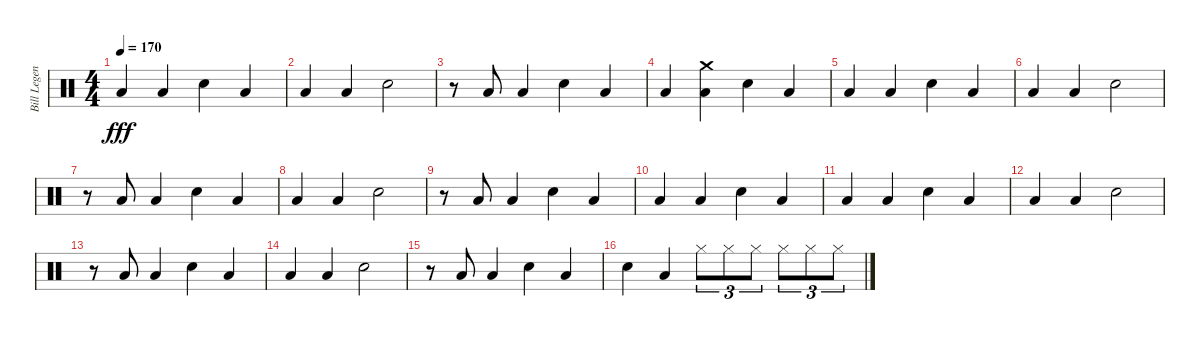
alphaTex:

\track ("Bill Legend" "Bill Legen") {instrument percussion}
\staff {score}
\articulation defaults
\ts (4 4)
\tempo 170
\clef neutral
\ks c "Low Floor Tom (hit)".4{dy fff} "Low Floor Tom (hit)".4 "Electric Snare (hit)".4 "Low Floor Tom (hit)".4
|
"Low Floor Tom (hit)".4 "Low Floor Tom (hit)".4 "Electric Snare (hit)".2 |
r.8 "Low Floor Tom (hit)".8 "Low Floor Tom (hit)".4 "Electric Snare (hit)".4 "Low Floor Tom (hit)".4 |
"Low Floor Tom (hit)".4 ("Low Floor Tom (hit)" "Crash medium (hit)").4 "Electric Snare (hit)".4 "Low Floor Tom (hit)".4 |
"Low Floor Tom (hit)".4 "Low Floor Tom (hit)".4 "Electric Snare (hit)".4 "Low Floor Tom (hit)".4 |
"Low Floor Tom (hit)".4 "Low Floor Tom (hit)".4 "Electric Snare (hit)".2 |
r.8 "Low Floor Tom (hit)".8 "Low Floor Tom (hit)".4 "Electric Snare (hit)".4 "Low Floor Tom (hit)".4 |
"Low Floor Tom (hit)".4 "Low Floor Tom (hit)".4 "Electric Snare (hit)".2 |
r.8 "Low Floor Tom (hit)".8 "Low Floor Tom (hit)".4 "Electric Snare (hit)".4 "Low Floor Tom (hit)".4 |
"Low Floor Tom (hit)".4 "Low Floor Tom (hit)".4 "Electric Snare (hit)".4 "Low Floor Tom (hit)".4 |
"Low Floor Tom (hit)".4 "Low Floor Tom (hit)".4 "Electric Snare (hit)".4 "Low Floor Tom (hit)".4 |
"Low Floor Tom (hit)".4 "Low Floor Tom (hit)".4 "Electric Snare (hit)".2 |
r.8 "Low Floor Tom (hit)".8 "Low Floor Tom (hit)".4 "Electric Snare (hit)".4 "Low Floor Tom (hit)".4 |
"Low Floor Tom (hit)".4 "Low Floor Tom (hit)".4 "Electric Snare (hit)".2 |
r.8 "Low Floor Tom (hit)".8 "Low Floor Tom (hit)".4 "Electric Snare (hit)".4 "Low Floor Tom (hit)".4 |
"Snare (hit) 2".4 "Low Floor Tom (hit)".4 "Hi-Hat (closed)".8{tu (3 2)} "Hi-Hat (closed)".8{tu (3 2)} "Hi-Hat (closed)".8{tu (3 2)} "Hi-Hat (closed)".8{tu (3 2)} "Hi-Hat (closed)".8{tu (3 2)} "Hi-Hat (closed)".8{tu (3 2)}
